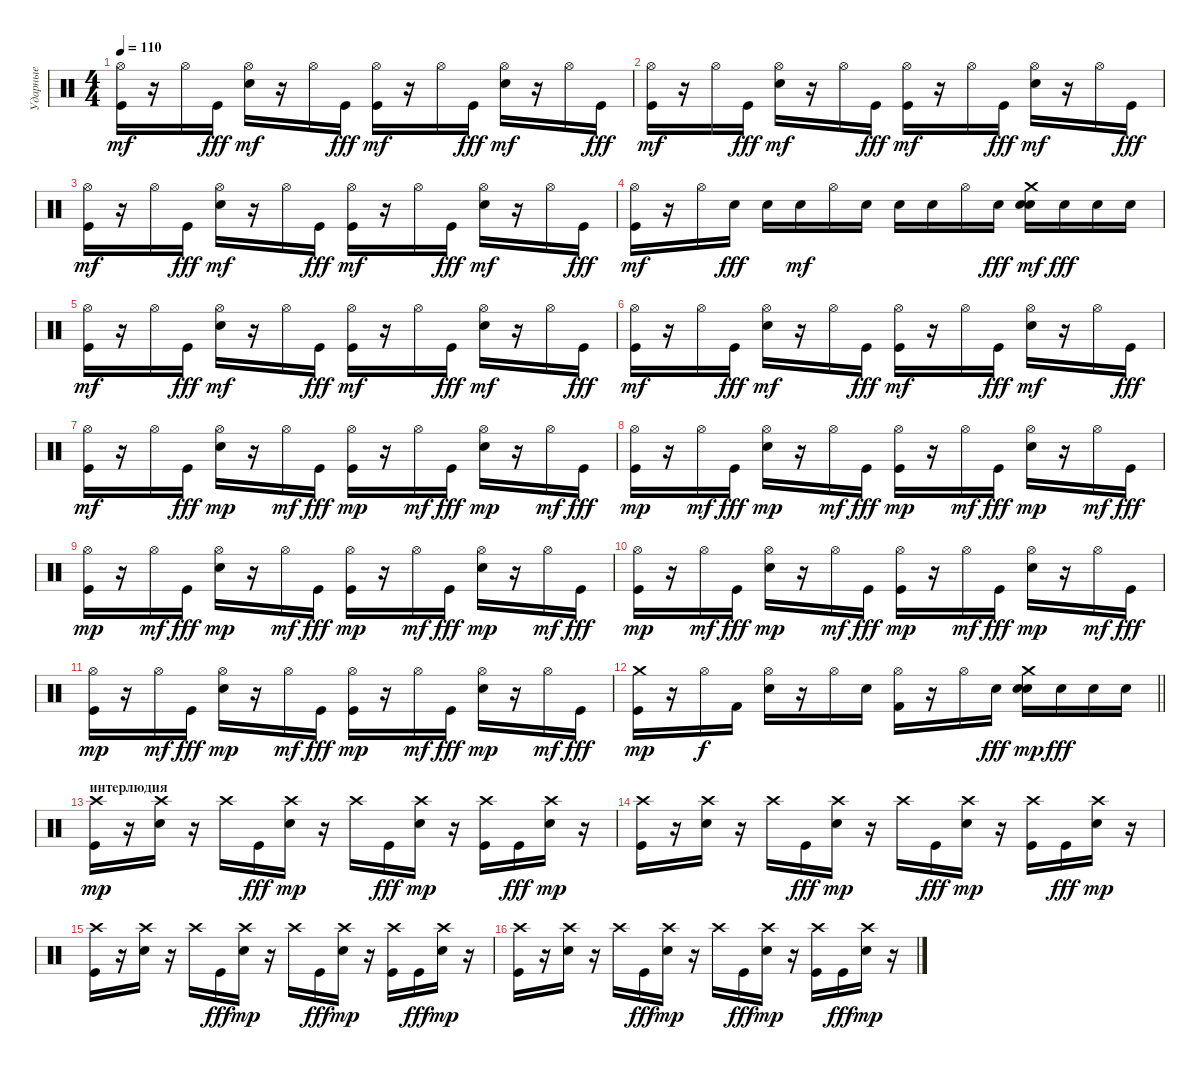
\track ("Ударные" "Ударные") {instrument percussion}
\staff {score}
\articulation defaults
\ts (4 4)
\tempo 110
\clef neutral
\ks c
("Kick (hit)" "Hi-Hat (open)").16{dy mf} r.16 "Hi-Hat (open)".16 "Kick (hit)".16{dy fff} ("Electric Snare (hit)" "Hi-Hat (open)").16{dy mf} r.16 "Hi-Hat (open)".16 "Kick (hit)".16{dy fff} ("Kick (hit)" "Hi-Hat (open)").16{dy mf} r.16 "Hi-Hat (open)".16 "Kick (hit)".16{dy fff} ("Electric Snare (hit)" "Hi-Hat (open)").16{dy mf} r.16 "Hi-Hat (open)".16 "Kick (hit)".16{dy fff} |
("Kick (hit)" "Hi-Hat (open)").16{dy mf} r.16 "Hi-Hat (open)".16 "Kick (hit)".16{dy fff} ("Electric Snare (hit)" "Hi-Hat (open)").16{dy mf} r.16 "Hi-Hat (open)".16 "Kick (hit)".16{dy fff} ("Kick (hit)" "Hi-Hat (open)").16{dy mf} r.16 "Hi-Hat (open)".16 "Kick (hit)".16{dy fff} ("Electric Snare (hit)" "Hi-Hat (open)").16{dy mf} r.16 "Hi-Hat (open)".16 "Kick (hit)".16{dy fff} |
("Kick (hit)" "Hi-Hat (open)").16{dy mf} r.16 "Hi-Hat (open)".16 "Kick (hit)".16{dy fff} ("Electric Snare (hit)" "Hi-Hat (open)").16{dy mf} r.16 "Hi-Hat (open)".16 "Kick (hit)".16{dy fff} ("Kick (hit)" "Hi-Hat (open)").16{dy mf} r.16 "Hi-Hat (open)".16 "Kick (hit)".16{dy fff} ("Electric Snare (hit)" "Hi-Hat (open)").16{dy mf} r.16 "Hi-Hat (open)".16 "Kick (hit)".16{dy fff} |
("Kick (hit)" "Hi-Hat (open)").16{dy mf} r.16 "Hi-Hat (open)".16 "Electric Snare (hit)".16{dy fff} "Electric Snare (hit)".16 "Electric Snare (hit)".16{dy mf} "Hi-Hat (open)".16 "Electric Snare (hit)".16 "Electric Snare (hit)".16 "Electric Snare (hit)".16 "Hi-Hat (open)".16 "Electric Snare (hit)".16{dy fff} ("Electric Snare (hit)" "Electric Snare (hit)" "Crash medium (hit)").16{dy mf} "Electric Snare (hit)".16{dy fff} "Electric Snare (hit)".16 "Electric Snare (hit)".16 |
("Kick (hit)" "Hi-Hat (open)").16{dy mf} r.16 "Hi-Hat (open)".16 "Kick (hit)".16{dy fff} ("Electric Snare (hit)" "Hi-Hat (open)").16{dy mf} r.16 "Hi-Hat (open)".16 "Kick (hit)".16{dy fff} ("Kick (hit)" "Hi-Hat (open)").16{dy mf} r.16 "Hi-Hat (open)".16 "Kick (hit)".16{dy fff} ("Electric Snare (hit)" "Hi-Hat (open)").16{dy mf} r.16 "Hi-Hat (open)".16 "Kick (hit)".16{dy fff} |
("Kick (hit)" "Hi-Hat (open)").16{dy mf} r.16 "Hi-Hat (open)".16 "Kick (hit)".16{dy fff} ("Electric Snare (hit)" "Hi-Hat (open)").16{dy mf} r.16 "Hi-Hat (open)".16 "Kick (hit)".16{dy fff} ("Kick (hit)" "Hi-Hat (open)").16{dy mf} r.16 "Hi-Hat (open)".16 "Kick (hit)".16{dy fff} ("Electric Snare (hit)" "Hi-Hat (open)").16{dy mf} r.16 "Hi-Hat (open)".16 "Kick (hit)".16{dy fff} |
("Kick (hit)" "Hi-Hat (open)").16{dy mf} r.16 "Hi-Hat (open)".16 "Kick (hit)".16{dy fff} ("Electric Snare (hit)" "Hi-Hat (open)").16{dy mp} r.16 "Hi-Hat (open)".16{dy mf} "Kick (hit)".16{dy fff} ("Kick (hit)" "Hi-Hat (open)").16{dy mp} r.16 "Hi-Hat (open)".16{dy mf} "Kick (hit)".16{dy fff} ("Electric Snare (hit)" "Hi-Hat (open)").16{dy mp} r.16 "Hi-Hat (open)".16{dy mf} "Kick (hit)".16{dy fff} |
("Kick (hit)" "Hi-Hat (open)").16{dy mp} r.16 "Hi-Hat (open)".16{dy mf} "Kick (hit)".16{dy fff} ("Electric Snare (hit)" "Hi-Hat (open)").16{dy mp} r.16 "Hi-Hat (open)".16{dy mf} "Kick (hit)".16{dy fff} ("Kick (hit)" "Hi-Hat (open)").16{dy mp} r.16 "Hi-Hat (open)".16{dy mf} "Kick (hit)".16{dy fff} ("Electric Snare (hit)" "Hi-Hat (open)").16{dy mp} r.16 "Hi-Hat (open)".16{dy mf} "Kick (hit)".16{dy fff} |
("Kick (hit)" "Hi-Hat (open)").16{dy mp} r.16 "Hi-Hat (open)".16{dy mf} "Kick (hit)".16{dy fff} ("Electric Snare (hit)" "Hi-Hat (open)").16{dy mp} r.16 "Hi-Hat (open)".16{dy mf} "Kick (hit)".16{dy fff} ("Kick (hit)" "Hi-Hat (open)").16{dy mp} r.16 "Hi-Hat (open)".16{dy mf} "Kick (hit)".16{dy fff} ("Electric Snare (hit)" "Hi-Hat (open)").16{dy mp} r.16 "Hi-Hat (open)".16{dy mf} "Kick (hit)".16{dy fff} |
("Kick (hit)" "Hi-Hat (open)").16{dy mp} r.16 "Hi-Hat (open)".16{dy mf} "Kick (hit)".16{dy fff} ("Electric Snare (hit)" "Hi-Hat (open)").16{dy mp} r.16 "Hi-Hat (open)".16{dy mf} "Kick (hit)".16{dy fff} ("Kick (hit)" "Hi-Hat (open)").16{dy mp} r.16 "Hi-Hat (open)".16{dy mf} "Kick (hit)".16{dy fff} ("Electric Snare (hit)" "Hi-Hat (open)").16{dy mp} r.16 "Hi-Hat (open)".16{dy mf} "Kick (hit)".16{dy fff} |
("Kick (hit)" "Hi-Hat (open)").16{dy mp} r.16 "Hi-Hat (open)".16{dy mf} "Kick (hit)".16{dy fff} ("Electric Snare (hit)" "Hi-Hat (open)").16{dy mp} r.16 "Hi-Hat (open)".16{dy mf} "Kick (hit)".16{dy fff} ("Kick (hit)" "Hi-Hat (open)").16{dy mp} r.16 "Hi-Hat (open)".16{dy mf} "Kick (hit)".16{dy fff} ("Electric Snare (hit)" "Hi-Hat (open)").16{dy mp} r.16 "Hi-Hat (open)".16{dy mf} "Kick (hit)".16{dy fff} |
\barLineRight lightlight
("Kick (hit)" "Crash medium (hit)").16{dy mp} r.16 "Hi-Hat (open)".16{dy f} "Kick (hit) 2".16 ("Electric Snare (hit)" "Hi-Hat (open)").16 r.16 "Hi-Hat (open)".16 "Electric Snare (hit)".16 ("Kick (hit) 2" "Hi-Hat (open)").16 r.16 "Hi-Hat (open)".16 "Electric Snare (hit)".16{dy fff} ("Electric Snare (hit)" "Electric Snare (hit)" "Crash medium (hit)").16{dy mp} "Electric Snare (hit)".16{dy fff} "Electric Snare (hit)".16 "Electric Snare (hit)".16 |
\section ("" "интерлюдия")
("Kick (hit)" "Crash high (hit)").16{dy mp} r.16 ("Electric Snare (hit)" "Crash high (hit)").16 r.16 "Crash high (hit)".16 "Kick (hit)".16{dy fff} ("Electric Snare (hit)" "Crash high (hit)").16{dy mp} r.16 "Crash high (hit)".16 "Kick (hit)".16{dy fff} ("Electric Snare (hit)" "Crash high (hit)").16{dy mp} r.16 ("Kick (hit)" "Crash high (hit)").16 "Kick (hit)".16{dy fff} ("Electric Snare (hit)" "Crash high (hit)").16{dy mp} r.16 |
("Kick (hit)" "Crash high (hit)").16 r.16 ("Electric Snare (hit)" "Crash high (hit)").16 r.16 "Crash high (hit)".16 "Kick (hit)".16{dy fff} ("Electric Snare (hit)" "Crash high (hit)").16{dy mp} r.16 "Crash high (hit)".16 "Kick (hit)".16{dy fff} ("Electric Snare (hit)" "Crash high (hit)").16{dy mp} r.16 ("Kick (hit)" "Crash high (hit)").16 "Kick (hit)".16{dy fff} ("Electric Snare (hit)" "Crash high (hit)").16{dy mp} r.16 |
("Kick (hit)" "Crash high (hit)").16 r.16 ("Electric Snare (hit)" "Crash high (hit)").16 r.16 "Crash high (hit)".16 "Kick (hit)".16{dy fff} ("Electric Snare (hit)" "Crash high (hit)").16{dy mp} r.16 "Crash high (hit)".16 "Kick (hit)".16{dy fff} ("Electric Snare (hit)" "Crash high (hit)").16{dy mp} r.16 ("Kick (hit)" "Crash high (hit)").16 "Kick (hit)".16{dy fff} ("Electric Snare (hit)" "Crash high (hit)").16{dy mp} r.16 |
("Kick (hit)" "Crash high (hit)").16 r.16 ("Electric Snare (hit)" "Crash high (hit)").16 r.16 "Crash high (hit)".16 "Kick (hit)".16{dy fff} ("Electric Snare (hit)" "Crash high (hit)").16{dy mp} r.16 "Crash high (hit)".16 "Kick (hit)".16{dy fff} ("Electric Snare (hit)" "Crash high (hit)").16{dy mp} r.16 ("Kick (hit)" "Crash high (hit)").16 "Kick (hit)".16{dy fff} ("Electric Snare (hit)" "Crash high (hit)").16{dy mp} r.16
